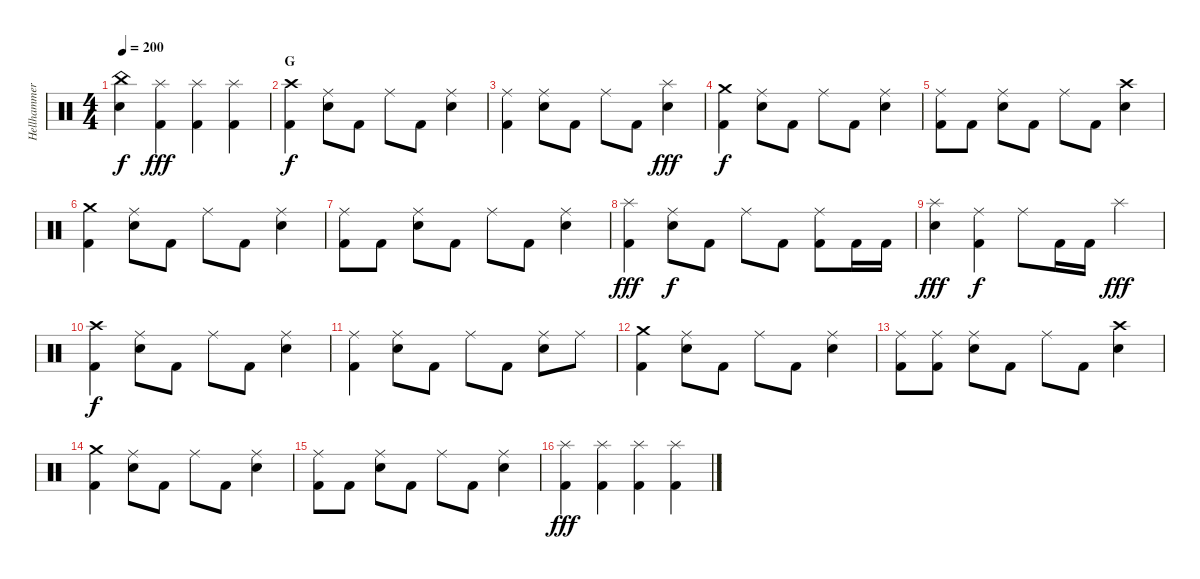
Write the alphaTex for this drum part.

\track ("Hellhammer" "Hellhammer") {instrument percussion}
\staff {score}
\articulation defaults
\ts (4 4)
\tempo 200
\clef neutral
\ks c
("Electric Snare (hit)" "China (hit)").4{dy f} ("Kick (hit) 2" "Splash (hit)").4{dy fff} ("Kick (hit) 2" "Splash (hit)").4 ("Kick (hit) 2" "Splash (hit)").4 |
\section ("" "G")
("Kick (hit) 2" "Crash high (hit)").4{dy f} ("Electric Snare (hit)" "Ride (middle)").8 "Kick (hit) 2".8 "Ride (middle)".8 "Kick (hit) 2".8 ("Electric Snare (hit)" "Ride (middle)").4 |
("Kick (hit) 2" "Ride (middle)").4 ("Electric Snare (hit)" "Ride (middle)").8 "Kick (hit) 2".8 "Ride (middle)".8 "Kick (hit) 2".8 ("Electric Snare (hit)" "Splash (hit)").4{dy fff} |
("Kick (hit) 2" "Crash medium (hit)").4{dy f} ("Electric Snare (hit)" "Ride (middle)").8 "Kick (hit) 2".8 "Ride (middle)".8 "Kick (hit) 2".8 ("Electric Snare (hit)" "Ride (middle)").4 |
("Kick (hit) 2" "Ride (middle)").8 "Kick (hit) 2".8 ("Electric Snare (hit)" "Ride (middle)").8 "Kick (hit) 2".8 "Ride (middle)".8 "Kick (hit) 2".8 ("Electric Snare (hit)" "Crash high (hit)").4 |
("Kick (hit) 2" "Crash medium (hit)").4 ("Electric Snare (hit)" "Ride (middle)").8 "Kick (hit) 2".8 "Ride (middle)".8 "Kick (hit) 2".8 ("Electric Snare (hit)" "Ride (middle)").4 |
("Kick (hit) 2" "Ride (middle)").8 "Kick (hit) 2".8 ("Electric Snare (hit)" "Ride (middle)").8 "Kick (hit) 2".8 "Ride (middle)".8 "Kick (hit) 2".8 ("Electric Snare (hit)" "Ride (middle)").4 |
("Kick (hit) 2" "Splash (hit)").4{dy fff} ("Electric Snare (hit)" "Ride (middle)").8{dy f} "Kick (hit) 2".8 "Ride (middle)".8 "Kick (hit) 2".8 ("Kick (hit) 2" "Ride (middle)").8 "Kick (hit) 2".16 "Kick (hit) 2".16 |
("Electric Snare (hit)" "Splash (hit)").4{dy fff} ("Kick (hit) 2" "Ride (middle)").4{dy f} "Ride (middle)".8 "Kick (hit) 2".16 "Kick (hit) 2".16 "Splash (hit)".4{dy fff} |
("Kick (hit) 2" "Crash high (hit)").4{dy f} ("Electric Snare (hit)" "Ride (middle)").8 "Kick (hit) 2".8 "Ride (middle)".8 "Kick (hit) 2".8 ("Electric Snare (hit)" "Ride (middle)").4 |
("Kick (hit) 2" "Ride (middle)").4 ("Electric Snare (hit)" "Ride (middle)").8 "Kick (hit) 2".8 "Ride (middle)".8 "Kick (hit) 2".8 ("Electric Snare (hit)" "Ride (middle)").8 "Ride (middle)".8 |
("Kick (hit) 2" "Crash medium (hit)").4 ("Electric Snare (hit)" "Ride (middle)").8 "Kick (hit) 2".8 "Ride (middle)".8 "Kick (hit) 2".8 ("Electric Snare (hit)" "Ride (middle)").4 |
("Kick (hit) 2" "Ride (middle)").8 ("Kick (hit) 2" "Ride (middle)").8 ("Electric Snare (hit)" "Ride (middle)").8 "Kick (hit) 2".8 "Ride (middle)".8 "Kick (hit) 2".8 ("Electric Snare (hit)" "Crash high (hit)").4 |
("Kick (hit) 2" "Crash medium (hit)").4 ("Electric Snare (hit)" "Ride (middle)").8 "Kick (hit) 2".8 "Ride (middle)".8 "Kick (hit) 2".8 ("Electric Snare (hit)" "Ride (middle)").4 |
("Kick (hit) 2" "Ride (middle)").8 "Kick (hit) 2".8 ("Electric Snare (hit)" "Ride (middle)").8 "Kick (hit) 2".8 "Ride (middle)".8 "Kick (hit) 2".8 ("Electric Snare (hit)" "Ride (middle)").4 |
("Kick (hit) 2" "Splash (hit)").4{dy fff} ("Kick (hit) 2" "Splash (hit)").4 ("Kick (hit) 2" "Splash (hit)").4 ("Kick (hit) 2" "Splash (hit)").4
